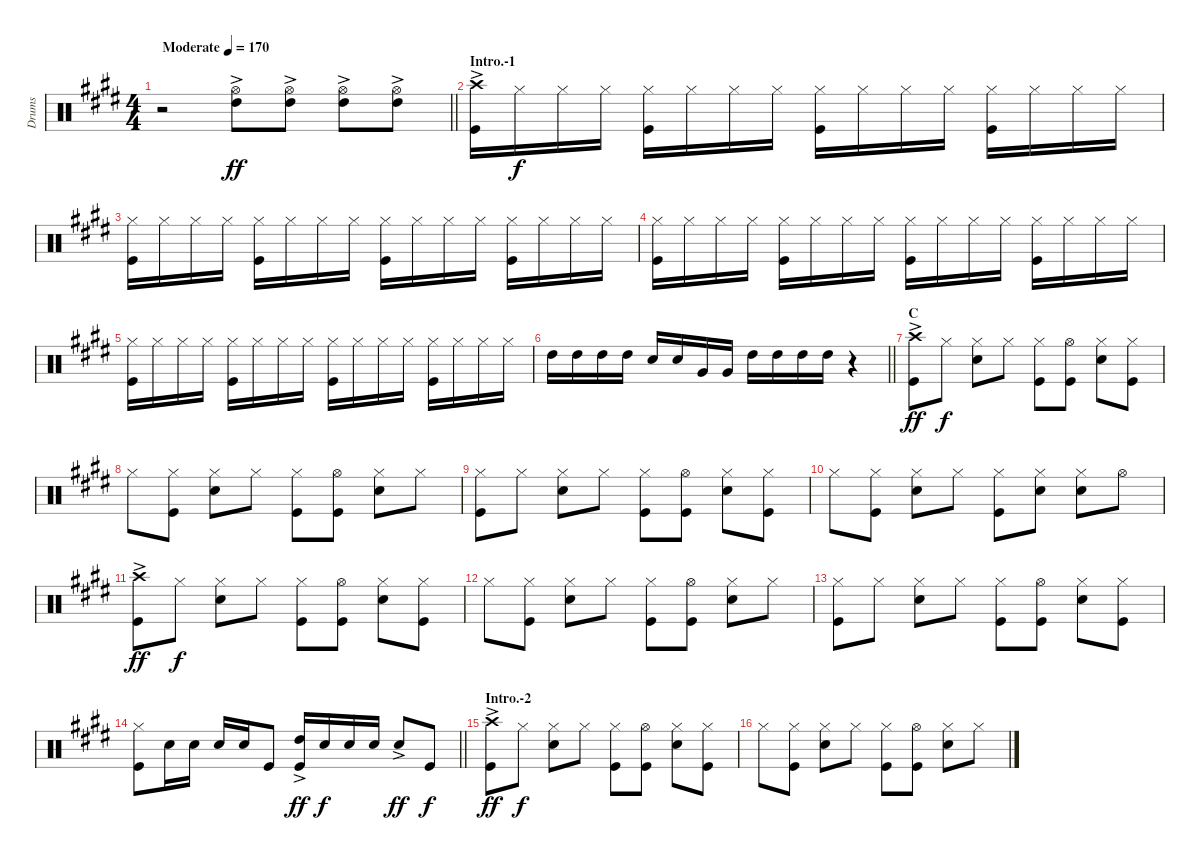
\track ("Drums" "Drums") {instrument percussion}
\staff {score}
\articulation defaults
\ts (4 4)
\tempo (170 "Moderate")
\clef neutral
\barLineRight lightlight
\ks e
r.2{dy ff} ("Hi-Hat (open)"{ac} "High Tom (hit)"{ac}).8 ("Hi-Hat (open)"{ac} "High Tom (hit)"{ac}).8 ("Hi-Hat (open)"{ac} "High Tom (hit)"{ac}).8 ("Hi-Hat (open)"{ac} "High Tom (hit)"{ac}).8 |
\section ("" "Intro.-1")
("Crash high (hit)"{ac} "Kick (hit)").16 "Hi-Hat (closed)".16{dy f} "Hi-Hat (closed)".16 "Hi-Hat (closed)".16 ("Kick (hit)" "Hi-Hat (closed)").16 "Hi-Hat (closed)".16 "Hi-Hat (closed)".16 "Hi-Hat (closed)".16 ("Kick (hit)" "Hi-Hat (closed)").16 "Hi-Hat (closed)".16 "Hi-Hat (closed)".16 "Hi-Hat (closed)".16 ("Kick (hit)" "Hi-Hat (closed)").16 "Hi-Hat (closed)".16 "Hi-Hat (closed)".16 "Hi-Hat (closed)".16 |
("Kick (hit)" "Hi-Hat (closed)").16 "Hi-Hat (closed)".16 "Hi-Hat (closed)".16 "Hi-Hat (closed)".16 ("Kick (hit)" "Hi-Hat (closed)").16 "Hi-Hat (closed)".16 "Hi-Hat (closed)".16 "Hi-Hat (closed)".16 ("Kick (hit)" "Hi-Hat (closed)").16 "Hi-Hat (closed)".16 "Hi-Hat (closed)".16 "Hi-Hat (closed)".16 ("Kick (hit)" "Hi-Hat (closed)").16 "Hi-Hat (closed)".16 "Hi-Hat (closed)".16 "Hi-Hat (closed)".16 |
("Kick (hit)" "Hi-Hat (closed)").16 "Hi-Hat (closed)".16 "Hi-Hat (closed)".16 "Hi-Hat (closed)".16 ("Kick (hit)" "Hi-Hat (closed)").16 "Hi-Hat (closed)".16 "Hi-Hat (closed)".16 "Hi-Hat (closed)".16 ("Kick (hit)" "Hi-Hat (closed)").16 "Hi-Hat (closed)".16 "Hi-Hat (closed)".16 "Hi-Hat (closed)".16 ("Kick (hit)" "Hi-Hat (closed)").16 "Hi-Hat (closed)".16 "Hi-Hat (closed)".16 "Hi-Hat (closed)".16 |
("Kick (hit)" "Hi-Hat (closed)").16 "Hi-Hat (closed)".16 "Hi-Hat (closed)".16 "Hi-Hat (closed)".16 ("Kick (hit)" "Hi-Hat (closed)").16 "Hi-Hat (closed)".16 "Hi-Hat (closed)".16 "Hi-Hat (closed)".16 ("Kick (hit)" "Hi-Hat (closed)").16 "Hi-Hat (closed)".16 "Hi-Hat (closed)".16 "Hi-Hat (closed)".16 ("Kick (hit)" "Hi-Hat (closed)").16 "Hi-Hat (closed)".16 "Hi-Hat (closed)".16 "Hi-Hat (closed)".16 |
\barLineRight lightlight "High Tom (hit)".16 "High Tom (hit)".16 "High Tom (hit)".16 "High Tom (hit)".16 "Snare (hit) 2".16 "Snare (hit) 2".16 "Very Low Tom (hit)".16 "Very Low Tom (hit)".16 "High Tom (hit)".16 "High Tom (hit)".16 "High Tom (hit)".16 "High Tom (hit)".16
r.4 |
\section ("" "C")
("Crash high (hit)"{ac} "Kick (hit)").8{dy ff} "Hi-Hat (closed)".8{dy f} ("Hi-Hat (closed)" "Snare (hit) 2").8 "Hi-Hat (closed)".8 ("Kick (hit)" "Hi-Hat (closed)").8 ("Hi-Hat (open)" "Kick (hit)").8 ("Snare (hit) 2" "Hi-Hat (closed)").8 ("Kick (hit)" "Hi-Hat (closed)").8 |
"Hi-Hat (closed)".8 ("Hi-Hat (closed)" "Kick (hit)").8 ("Snare (hit) 2" "Hi-Hat (closed)").8 "Hi-Hat (closed)".8 ("Hi-Hat (closed)" "Kick (hit)").8 ("Kick (hit)" "Hi-Hat (open)").8 ("Hi-Hat (closed)" "Snare (hit) 2").8 "Hi-Hat (closed)".8 |
("Kick (hit)" "Hi-Hat (closed)").8 "Hi-Hat (closed)".8 ("Hi-Hat (closed)" "Snare (hit) 2").8 "Hi-Hat (closed)".8 ("Hi-Hat (closed)" "Kick (hit)").8 ("Kick (hit)" "Hi-Hat (open)").8 ("Snare (hit) 2" "Hi-Hat (closed)").8 ("Hi-Hat (closed)" "Kick (hit)").8 |
"Hi-Hat (closed)".8 ("Hi-Hat (closed)" "Kick (hit)").8 ("Snare (hit) 2" "Hi-Hat (closed)").8 "Hi-Hat (closed)".8 ("Hi-Hat (closed)" "Kick (hit)").8 ("Hi-Hat (closed)" "Snare (hit) 2").8 ("Snare (hit) 2" "Hi-Hat (closed)").8 "Hi-Hat (open)".8 |
("Crash high (hit)"{ac} "Kick (hit)").8{dy ff} "Hi-Hat (closed)".8{dy f} ("Hi-Hat (closed)" "Snare (hit) 2").8 "Hi-Hat (closed)".8 ("Hi-Hat (closed)" "Kick (hit)").8 ("Kick (hit)" "Hi-Hat (open)").8 ("Hi-Hat (closed)" "Snare (hit) 2").8 ("Hi-Hat (closed)" "Kick (hit)").8 |
"Hi-Hat (closed)".8 ("Hi-Hat (closed)" "Kick (hit)").8 ("Snare (hit) 2" "Hi-Hat (closed)").8 "Hi-Hat (closed)".8 ("Hi-Hat (closed)" "Kick (hit)").8 ("Kick (hit)" "Hi-Hat (open)").8 ("Hi-Hat (closed)" "Snare (hit) 2").8 "Hi-Hat (closed)".8 |
("Hi-Hat (closed)" "Kick (hit)").8 "Hi-Hat (closed)".8 ("Hi-Hat (closed)" "Snare (hit) 2").8 "Hi-Hat (closed)".8 ("Hi-Hat (closed)" "Kick (hit)").8 ("Kick (hit)" "Hi-Hat (open)").8 ("Hi-Hat (closed)" "Snare (hit) 2").8 ("Hi-Hat (closed)" "Kick (hit)").8 |
\barLineRight lightlight
("Hi-Hat (closed)" "Kick (hit)").8 "Snare (hit) 2".16 "Snare (hit) 2".16 "Snare (hit) 2".16 "Snare (hit) 2".16 "Kick (hit)".8 ("Kick (hit)" "High Tom (hit)"{ac}).16{dy ff} "Snare (hit) 2".16{dy f} "Snare (hit) 2".16 "Snare (hit) 2".16 "Snare (hit) 2"{ac}.8{dy ff} "Kick (hit)".8{dy f} |
\section ("" "Intro.-2")
("Crash high (hit)"{ac} "Kick (hit)").8{dy ff} "Hi-Hat (closed)".8{dy f} ("Hi-Hat (closed)" "Snare (hit) 2").8 "Hi-Hat (closed)".8 ("Hi-Hat (closed)" "Kick (hit)").8 ("Hi-Hat (open)" "Kick (hit)").8 ("Hi-Hat (closed)" "Snare (hit) 2").8 ("Hi-Hat (closed)" "Kick (hit)").8 |
"Hi-Hat (closed)".8 ("Hi-Hat (closed)" "Kick (hit)").8 ("Hi-Hat (closed)" "Snare (hit) 2").8 "Hi-Hat (closed)".8 ("Hi-Hat (closed)" "Kick (hit)").8 ("Kick (hit)" "Hi-Hat (open)").8 ("Snare (hit) 2" "Hi-Hat (closed)").8 "Hi-Hat (closed)".8
